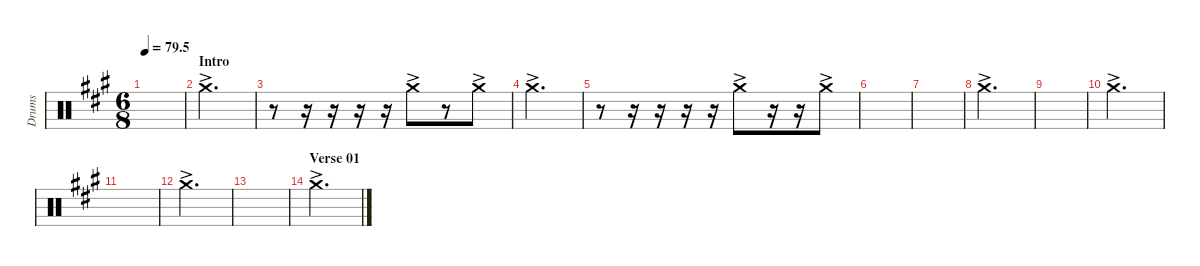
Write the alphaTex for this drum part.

\defaultSystemsLayout 4
\hideDynamics
\bracketExtendMode nobrackets
\otherSystemsTrackNameOrientation horizontal
\track ("Right crash" "Drums") {instrument percussion}
\staff {score}
\articulation defaults
\ts (6 8)
\tempo
79.5
\accidentals auto
\clef neutral
\ottava regular
\simile none
\scale
0.474178
\ks a
|
\section ("" "Intro")
\scale
0.262911 "Crash medium (hit)"{ac acc forcenatural}.2{d} |
\scale
0.262911 r.8 r.16 r.16 r.16 r.16 "Crash medium (hit)"{ac acc forcenatural}.8 r.8 "Crash medium (hit)"{ac acc forcenatural}.8 |
\scale
0.333333 "Crash medium (hit)"{ac acc forcenatural}.2{d} |
\scale
0.333333 r.8 r.16 r.16 r.16 r.16 "Crash medium (hit)"{ac acc forcenatural}.8 r.16 r.16 "Crash medium (hit)"{ac acc forcenatural}.8 |
\scale
0.333333 |
\scale
0.333333 |
\scale
0.333333 "Crash medium (hit)"{ac acc forcenatural}.2{d} |
\scale
0.333333 |
\scale
0.333333 "Crash medium (hit)"{ac acc forcenatural}.2{d} |
\scale
0.333333 |
\scale
0.333333 "Crash medium (hit)"{ac acc forcenatural}.2{d} |
\scale
0.333333 |
\section ("" "Verse 01")
\scale
0.333333 "Crash medium (hit)"{ac acc forcenatural}.2{d} |
\scale
0.333333 |
\scale
0.333333
